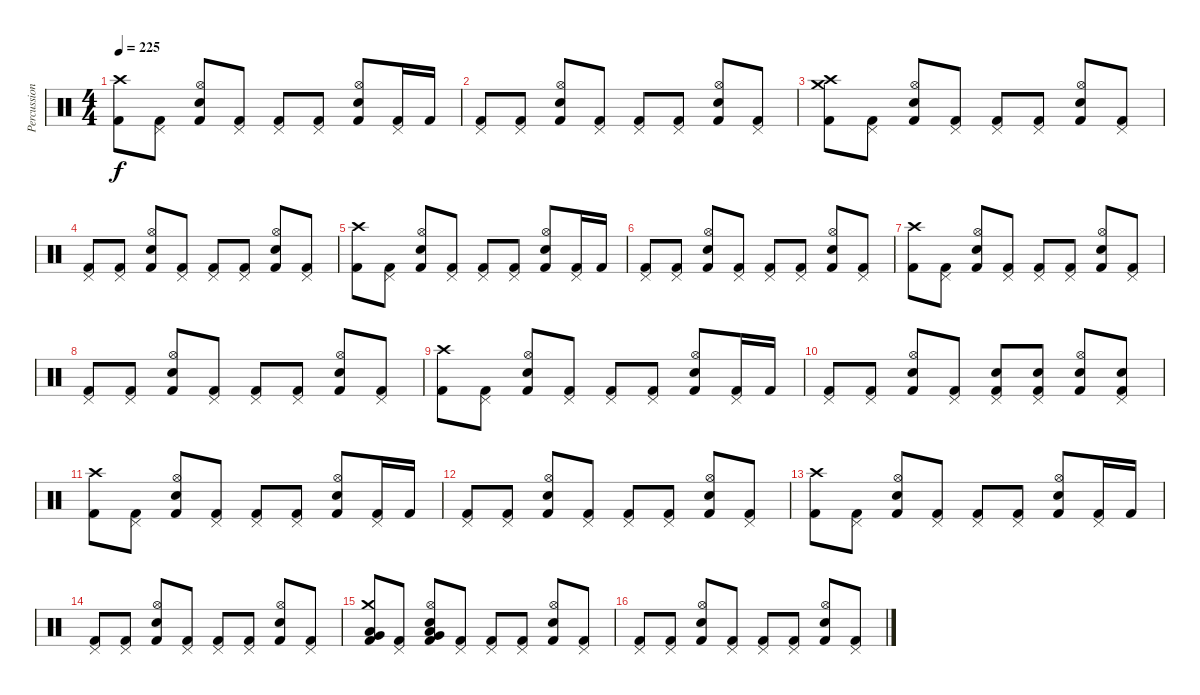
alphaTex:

\track ("Percussion" "Percussion") {instrument percussion}
\staff {score}
\articulation defaults
\ts (4 4)
\tempo 225
\clef neutral
\ks c
("Crash high (hit)" "Kick (hit) 2").8{dy f} ("Pedal Hi-Hat (hit)" "Kick (hit) 2").8 ("Hi-Hat (open)" "Electric Snare (hit)" "Kick (hit) 2").8 ("Pedal Hi-Hat (hit)" "Kick (hit) 2").8 ("Pedal Hi-Hat (hit)" "Kick (hit) 2").8 ("Pedal Hi-Hat (hit)" "Kick (hit) 2").8 ("Hi-Hat (open)" "Electric Snare (hit)" "Kick (hit) 2").8 ("Pedal Hi-Hat (hit)" "Kick (hit) 2").16 "Kick (hit) 2".16 |
("Pedal Hi-Hat (hit)" "Kick (hit) 2").8 ("Pedal Hi-Hat (hit)" "Kick (hit) 2").8 ("Hi-Hat (open)" "Electric Snare (hit)" "Kick (hit) 2").8 ("Pedal Hi-Hat (hit)" "Kick (hit) 2").8 ("Pedal Hi-Hat (hit)" "Kick (hit) 2").8 ("Pedal Hi-Hat (hit)" "Kick (hit) 2").8 ("Hi-Hat (open)" "Electric Snare (hit)" "Kick (hit) 2").8 ("Pedal Hi-Hat (hit)" "Kick (hit) 2").8 |
("Crash high (hit)" "Crash medium (hit)" "Kick (hit) 2").8 ("Pedal Hi-Hat (hit)" "Kick (hit) 2").8 ("Hi-Hat (open)" "Electric Snare (hit)" "Kick (hit) 2").8 ("Pedal Hi-Hat (hit)" "Kick (hit) 2").8 ("Pedal Hi-Hat (hit)" "Kick (hit) 2").8 ("Pedal Hi-Hat (hit)" "Kick (hit) 2").8 ("Hi-Hat (open)" "Electric Snare (hit)" "Kick (hit) 2").8 ("Pedal Hi-Hat (hit)" "Kick (hit) 2").8 |
("Pedal Hi-Hat (hit)" "Kick (hit) 2").8 ("Pedal Hi-Hat (hit)" "Kick (hit) 2").8 ("Hi-Hat (open)" "Electric Snare (hit)" "Kick (hit) 2").8 ("Pedal Hi-Hat (hit)" "Kick (hit) 2").8 ("Pedal Hi-Hat (hit)" "Kick (hit) 2").8 ("Pedal Hi-Hat (hit)" "Kick (hit) 2").8 ("Hi-Hat (open)" "Electric Snare (hit)" "Kick (hit) 2").8 ("Pedal Hi-Hat (hit)" "Kick (hit) 2").8 |
("Crash high (hit)" "Kick (hit) 2").8 ("Pedal Hi-Hat (hit)" "Kick (hit) 2").8 ("Hi-Hat (open)" "Electric Snare (hit)" "Kick (hit) 2").8 ("Pedal Hi-Hat (hit)" "Kick (hit) 2").8 ("Pedal Hi-Hat (hit)" "Kick (hit) 2").8 ("Pedal Hi-Hat (hit)" "Kick (hit) 2").8 ("Hi-Hat (open)" "Electric Snare (hit)" "Kick (hit) 2").8 ("Pedal Hi-Hat (hit)" "Kick (hit) 2").16 "Kick (hit) 2".16 |
("Pedal Hi-Hat (hit)" "Kick (hit) 2").8 ("Pedal Hi-Hat (hit)" "Kick (hit) 2").8 ("Hi-Hat (open)" "Electric Snare (hit)" "Kick (hit) 2").8 ("Pedal Hi-Hat (hit)" "Kick (hit) 2").8 ("Pedal Hi-Hat (hit)" "Kick (hit) 2").8 ("Pedal Hi-Hat (hit)" "Kick (hit) 2").8 ("Hi-Hat (open)" "Electric Snare (hit)" "Kick (hit) 2").8 ("Pedal Hi-Hat (hit)" "Kick (hit) 2").8 |
("Crash high (hit)" "Kick (hit) 2").8 ("Pedal Hi-Hat (hit)" "Kick (hit) 2").8 ("Hi-Hat (open)" "Electric Snare (hit)" "Kick (hit) 2").8 ("Pedal Hi-Hat (hit)" "Kick (hit) 2").8 ("Pedal Hi-Hat (hit)" "Kick (hit) 2").8 ("Pedal Hi-Hat (hit)" "Kick (hit) 2").8 ("Hi-Hat (open)" "Electric Snare (hit)" "Kick (hit) 2").8 ("Pedal Hi-Hat (hit)" "Kick (hit) 2").8 |
("Pedal Hi-Hat (hit)" "Kick (hit) 2").8 ("Pedal Hi-Hat (hit)" "Kick (hit) 2").8 ("Hi-Hat (open)" "Electric Snare (hit)" "Kick (hit) 2").8 ("Pedal Hi-Hat (hit)" "Kick (hit) 2").8 ("Pedal Hi-Hat (hit)" "Kick (hit) 2").8 ("Pedal Hi-Hat (hit)" "Kick (hit) 2").8 ("Hi-Hat (open)" "Electric Snare (hit)" "Kick (hit) 2").8 ("Pedal Hi-Hat (hit)" "Kick (hit) 2").8 |
("Crash high (hit)" "Kick (hit) 2").8 ("Pedal Hi-Hat (hit)" "Kick (hit) 2").8 ("Hi-Hat (open)" "Electric Snare (hit)" "Kick (hit) 2").8 ("Pedal Hi-Hat (hit)" "Kick (hit) 2").8 ("Pedal Hi-Hat (hit)" "Kick (hit) 2").8 ("Pedal Hi-Hat (hit)" "Kick (hit) 2").8 ("Hi-Hat (open)" "Electric Snare (hit)" "Kick (hit) 2").8 ("Pedal Hi-Hat (hit)" "Kick (hit) 2").16 "Kick (hit) 2".16 |
("Pedal Hi-Hat (hit)" "Kick (hit) 2").8 ("Pedal Hi-Hat (hit)" "Kick (hit) 2").8 ("Hi-Hat (open)" "Electric Snare (hit)" "Kick (hit) 2").8 ("Pedal Hi-Hat (hit)" "Kick (hit) 2").8 ("Pedal Hi-Hat (hit)" "Electric Snare (hit)" "Kick (hit) 2").8 ("Pedal Hi-Hat (hit)" "Electric Snare (hit)" "Kick (hit) 2").8 ("Hi-Hat (open)" "Electric Snare (hit)" "Kick (hit) 2").8 ("Pedal Hi-Hat (hit)" "Electric Snare (hit)" "Kick (hit) 2").8 |
("Crash high (hit)" "Kick (hit) 2").8 ("Pedal Hi-Hat (hit)" "Kick (hit) 2").8 ("Hi-Hat (open)" "Electric Snare (hit)" "Kick (hit) 2").8 ("Pedal Hi-Hat (hit)" "Kick (hit) 2").8 ("Pedal Hi-Hat (hit)" "Kick (hit) 2").8 ("Pedal Hi-Hat (hit)" "Kick (hit) 2").8 ("Hi-Hat (open)" "Electric Snare (hit)" "Kick (hit) 2").8 ("Pedal Hi-Hat (hit)" "Kick (hit) 2").16 "Kick (hit) 2".16 |
("Pedal Hi-Hat (hit)" "Kick (hit) 2").8 ("Pedal Hi-Hat (hit)" "Kick (hit) 2").8 ("Hi-Hat (open)" "Electric Snare (hit)" "Kick (hit) 2").8 ("Pedal Hi-Hat (hit)" "Kick (hit) 2").8 ("Pedal Hi-Hat (hit)" "Kick (hit) 2").8 ("Pedal Hi-Hat (hit)" "Kick (hit) 2").8 ("Hi-Hat (open)" "Electric Snare (hit)" "Kick (hit) 2").8 ("Pedal Hi-Hat (hit)" "Kick (hit) 2").8 |
("Crash high (hit)" "Kick (hit) 2").8 ("Pedal Hi-Hat (hit)" "Kick (hit) 2").8 ("Hi-Hat (open)" "Electric Snare (hit)" "Kick (hit) 2").8 ("Pedal Hi-Hat (hit)" "Kick (hit) 2").8 ("Pedal Hi-Hat (hit)" "Kick (hit) 2").8 ("Pedal Hi-Hat (hit)" "Kick (hit) 2").8 ("Hi-Hat (open)" "Electric Snare (hit)" "Kick (hit) 2").8 ("Pedal Hi-Hat (hit)" "Kick (hit) 2").16 "Kick (hit) 2".16 |
("Pedal Hi-Hat (hit)" "Kick (hit) 2").8 ("Pedal Hi-Hat (hit)" "Kick (hit) 2").8 ("Hi-Hat (open)" "Electric Snare (hit)" "Kick (hit) 2").8 ("Pedal Hi-Hat (hit)" "Kick (hit) 2").8 ("Pedal Hi-Hat (hit)" "Kick (hit) 2").8 ("Pedal Hi-Hat (hit)" "Kick (hit) 2").8 ("Hi-Hat (open)" "Electric Snare (hit)" "Kick (hit) 2").8 ("Pedal Hi-Hat (hit)" "Kick (hit) 2").8 |
("Crash medium (hit)" "Very Low Tom (hit)" "Low Floor Tom (hit)" "Kick (hit) 2").8 ("Pedal Hi-Hat (hit)" "Kick (hit) 2").8 ("Hi-Hat (open)" "Electric Snare (hit)" "Very Low Tom (hit)" "Low Floor Tom (hit)" "Kick (hit) 2").8 ("Pedal Hi-Hat (hit)" "Kick (hit) 2").8 ("Pedal Hi-Hat (hit)" "Kick (hit) 2").8 ("Pedal Hi-Hat (hit)" "Kick (hit) 2").8 ("Hi-Hat (open)" "Electric Snare (hit)" "Kick (hit) 2").8 ("Pedal Hi-Hat (hit)" "Kick (hit) 2").8 |
("Pedal Hi-Hat (hit)" "Kick (hit) 2").8 ("Pedal Hi-Hat (hit)" "Kick (hit) 2").8 ("Hi-Hat (open)" "Electric Snare (hit)" "Kick (hit) 2").8 ("Pedal Hi-Hat (hit)" "Kick (hit) 2").8 ("Pedal Hi-Hat (hit)" "Kick (hit) 2").8 ("Pedal Hi-Hat (hit)" "Kick (hit) 2").8 ("Hi-Hat (open)" "Electric Snare (hit)" "Kick (hit) 2").8 ("Pedal Hi-Hat (hit)" "Kick (hit) 2").8
